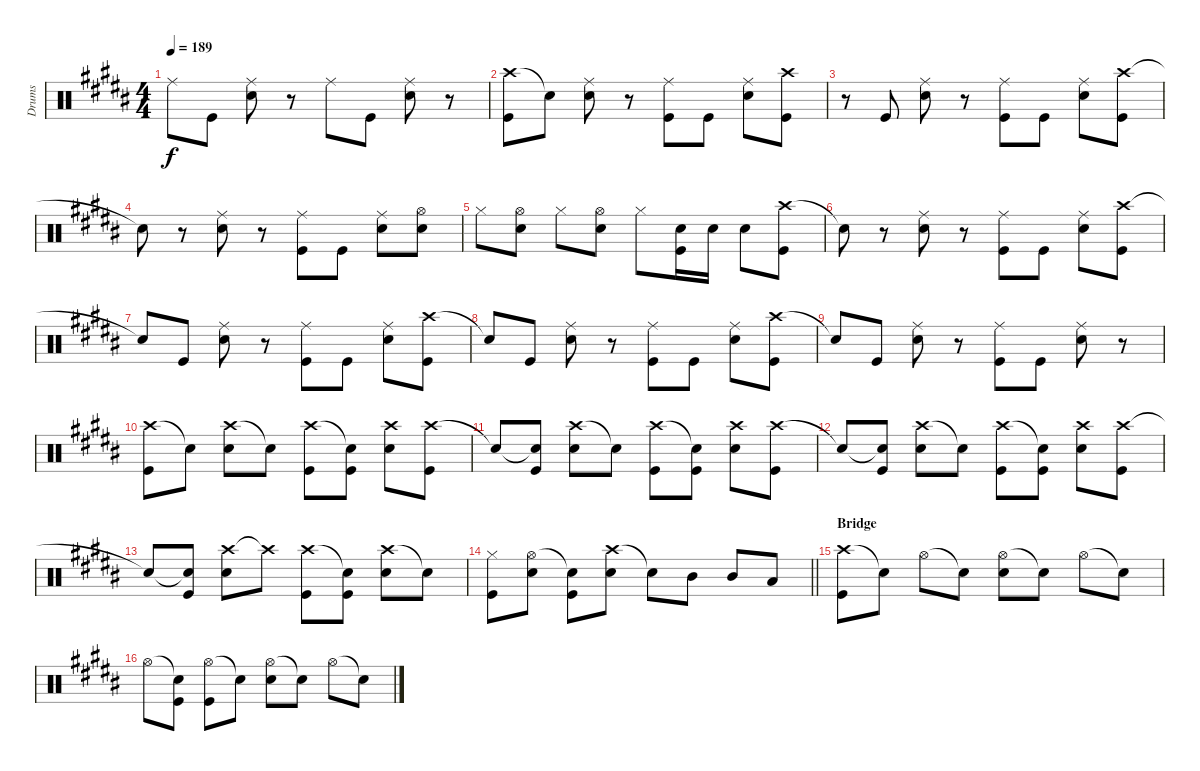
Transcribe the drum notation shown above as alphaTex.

\track ("Drums" "Drums") {instrument percussion}
\staff {score}
\articulation defaults
\ts (4 4)
\tempo 189
\clef neutral
\ks b "Ride (middle)".8{dy f} "Kick (hit)".8
("Ride (middle)" "Snare (hit) 2").8 r.8 "Ride (middle)".8 "Kick (hit)".8 ("Ride (middle)" "Snare (hit) 2").8 r.8 |
("Crash high (hit)" "Kick (hit)").8 "Snare (hit)"{t}.8 ("Ride (middle)" "Snare (hit) 2").8 r.8 ("Ride (middle)" "Kick (hit)").8 "Kick (hit)".8 ("Ride (middle)" "Snare (hit) 2").8 ("Crash high (hit)" "Kick (hit)").8 |
r.8 "Kick (hit)".8 ("Ride (middle)" "Snare (hit) 2").8 r.8 ("Ride (middle)" "Kick (hit)").8 "Kick (hit)".8 ("Ride (middle)" "Snare (hit) 2").8 ("Crash high (hit)" "Kick (hit)").8 |
"Snare (hit)"{t}.8 r.8 ("Ride (middle)" "Snare (hit) 2").8 r.8 ("Ride (middle)" "Kick (hit)").8 "Kick (hit)".8 ("Ride (middle)" "Snare (hit) 2").8 ("Hi-Hat (open)" "Snare (hit) 2").8 |
"Hi-Hat (closed)".8 ("Hi-Hat (open)" "Snare (hit) 2").8 "Hi-Hat (closed)".8 ("Hi-Hat (open)" "Snare (hit) 2").8 "Hi-Hat (closed)".8 ("Snare (hit) 2" "Kick (hit)").16 "Snare (hit) 2".16 "Snare (hit) 2".8 ("Crash high (hit)" "Kick (hit)").8 |
"Snare (hit)"{t}.8 r.8 ("Ride (middle)" "Snare (hit) 2").8 r.8 ("Ride (middle)" "Kick (hit)").8 "Kick (hit)".8 ("Ride (middle)" "Snare (hit) 2").8 ("Crash high (hit)" "Kick (hit)").8 |
"Snare (hit)"{t}.8 "Kick (hit)".8 ("Ride (middle)" "Snare (hit) 2").8 r.8 ("Ride (middle)" "Kick (hit)").8 "Kick (hit)".8 ("Ride (middle)" "Snare (hit) 2").8 ("Crash high (hit)" "Kick (hit)").8 |
"Snare (hit)"{t}.8 "Kick (hit)".8 ("Ride (middle)" "Snare (hit) 2").8 r.8 ("Ride (middle)" "Kick (hit)").8 "Kick (hit)".8 ("Ride (middle)" "Snare (hit) 2").8 ("Crash high (hit)" "Kick (hit)").8 |
"Snare (hit)"{t}.8 "Kick (hit)".8 ("Ride (middle)" "Snare (hit) 2").8 r.8 ("Ride (middle)" "Kick (hit)").8 "Kick (hit)".8 ("Ride (middle)" "Snare (hit) 2").8 r.8 |
("Crash high (hit)" "Kick (hit)").8 "Snare (hit)"{t}.8 ("Crash high (hit)" "Snare (hit) 2").8 "Snare (hit)"{t}.8 ("Crash high (hit)" "Kick (hit)").8 ("Snare (hit)"{t} "Kick (hit)").8 ("Crash high (hit)" "Snare (hit) 2").8 ("Crash high (hit)" "Kick (hit)").8 |
"Snare (hit)"{t}.8 ("Snare (hit)"{t} "Kick (hit)").8 ("Crash high (hit)" "Snare (hit) 2").8 "Snare (hit)"{t}.8 ("Crash high (hit)" "Kick (hit)").8 ("Snare (hit)"{t} "Kick (hit)").8 ("Crash high (hit)" "Snare (hit) 2").8 ("Crash high (hit)" "Kick (hit)").8 |
"Snare (hit)"{t}.8 ("Snare (hit)"{t} "Kick (hit)").8 ("Crash high (hit)" "Snare (hit) 2").8 "Snare (hit)"{t}.8 ("Crash high (hit)" "Kick (hit)").8 ("Snare (hit)"{t} "Kick (hit)").8 ("Crash high (hit)" "Snare (hit) 2").8 ("Crash high (hit)" "Kick (hit)").8 |
"Snare (hit)"{t}.8 ("Snare (hit)"{t} "Kick (hit)").8 ("Crash high (hit)" "Snare (hit) 2").8 "Crash high (hit)"{t}.8 ("Crash high (hit)" "Kick (hit)").8 ("Snare (hit)"{t} "Kick (hit)").8 ("Crash high (hit)" "Snare (hit) 2").8 "Snare (hit)"{t}.8 |
\barLineRight lightlight
("Hi-Hat (closed)" "Kick (hit)").8 ("Hi-Hat (open)" "Snare (hit) 2").8 ("Snare (hit)"{t} "Kick (hit)").8 ("Crash high (hit)" "Snare (hit) 2").8 "Snare (hit)"{t}.8 "Mid Tom (hit)".8 "Mid Tom (hit)".8 "Low Tom (hit)".8 |
\section ("" "Bridge")
("Crash high (hit)" "Kick (hit)").8 "Snare (hit)"{t}.8 "Hi-Hat (open)".8 "Snare (hit)"{t}.8 ("Hi-Hat (open)" "Snare (hit) 2").8 "Snare (hit)"{t}.8 "Hi-Hat (open)".8 "Snare (hit)"{t}.8 |
"Hi-Hat (open)".8 ("Snare (hit)"{t} "Kick (hit)").8 ("Hi-Hat (open)" "Kick (hit)").8 "Snare (hit)"{t}.8 ("Hi-Hat (open)" "Snare (hit) 2").8 "Snare (hit)"{t}.8 "Hi-Hat (open)".8 "Snare (hit)"{t}.8
